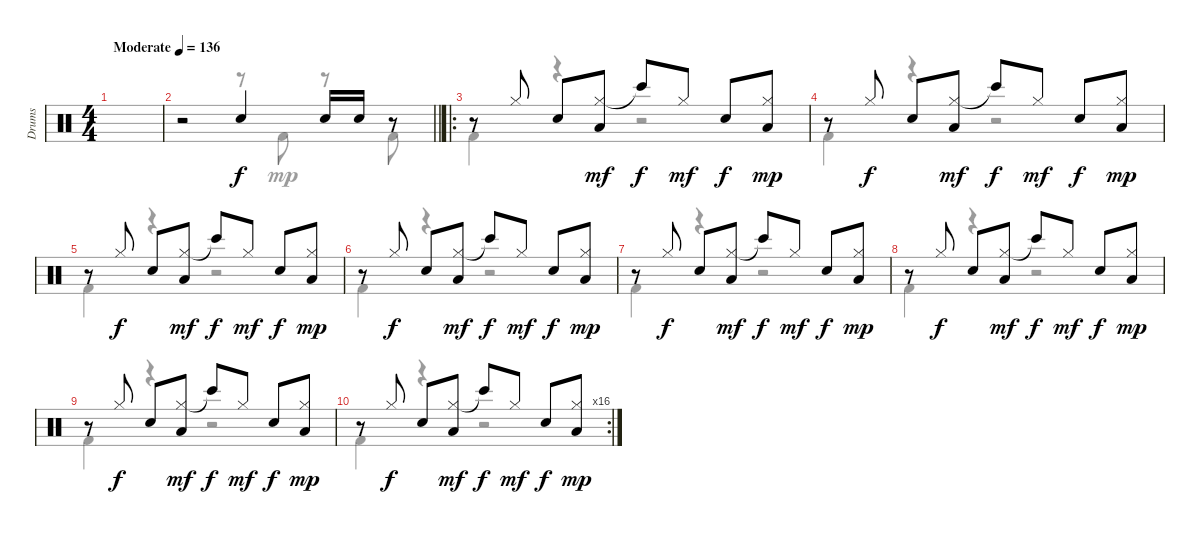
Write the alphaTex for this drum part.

\track ("Drums" "Drums") {instrument percussion}
\staff {score}
\articulation defaults
\voice
\ts (4 4)
\tempo (136 "Moderate")
\clef neutral
\ks c
|
\barLineRight lightlight
r.2 "Snare (hit) 2".4 "Snare (hit) 2".16 "Snare (hit) 2".16 r.8 |
\ro
r.8 "Hi-Hat (closed)".8 "Snare (hit) 2".8 ("Hi-Hat (closed)" "Low Floor Tom (hit)").8{dy mf} "Bongo High (hit)"{t}.8{dy f} "Hi-Hat (closed)".8{dy mf} "Snare (hit) 2".8{dy f} ("Hi-Hat (closed)" "Low Floor Tom (hit)").8{dy mp} |
r.8 "Hi-Hat (closed)".8{dy f} "Snare (hit) 2".8 ("Hi-Hat (closed)" "Low Floor Tom (hit)").8{dy mf} "Bongo High (hit)"{t}.8{dy f} "Hi-Hat (closed)".8{dy mf} "Snare (hit) 2".8{dy f} ("Hi-Hat (closed)" "Low Floor Tom (hit)").8{dy mp} |
r.8 "Hi-Hat (closed)".8{dy f} "Snare (hit) 2".8 ("Hi-Hat (closed)" "Low Floor Tom (hit)").8{dy mf} "Bongo High (hit)"{t}.8{dy f} "Hi-Hat (closed)".8{dy mf} "Snare (hit) 2".8{dy f} ("Hi-Hat (closed)" "Low Floor Tom (hit)").8{dy mp} |
r.8 "Hi-Hat (closed)".8{dy f} "Snare (hit) 2".8 ("Hi-Hat (closed)" "Low Floor Tom (hit)").8{dy mf} "Bongo High (hit)"{t}.8{dy f} "Hi-Hat (closed)".8{dy mf} "Snare (hit) 2".8{dy f} ("Hi-Hat (closed)" "Low Floor Tom (hit)").8{dy mp} |
r.8 "Hi-Hat (closed)".8{dy f} "Snare (hit) 2".8 ("Hi-Hat (closed)" "Low Floor Tom (hit)").8{dy mf} "Bongo High (hit)"{t}.8{dy f} "Hi-Hat (closed)".8{dy mf} "Snare (hit) 2".8{dy f} ("Hi-Hat (closed)" "Low Floor Tom (hit)").8{dy mp} |
r.8 "Hi-Hat (closed)".8{dy f} "Snare (hit) 2".8 ("Hi-Hat (closed)" "Low Floor Tom (hit)").8{dy mf} "Bongo High (hit)"{t}.8{dy f} "Hi-Hat (closed)".8{dy mf} "Snare (hit) 2".8{dy f} ("Hi-Hat (closed)" "Low Floor Tom (hit)").8{dy mp} |
r.8 "Hi-Hat (closed)".8{dy f} "Snare (hit) 2".8 ("Hi-Hat (closed)" "Low Floor Tom (hit)").8{dy mf} "Bongo High (hit)"{t}.8{dy f} "Hi-Hat (closed)".8{dy mf} "Snare (hit) 2".8{dy f} ("Hi-Hat (closed)" "Low Floor Tom (hit)").8{dy mp} |
\rc 16
r.8 "Hi-Hat (closed)".8{dy f} "Snare (hit) 2".8 ("Hi-Hat (closed)" "Low Floor Tom (hit)").8{dy mf} "Bongo High (hit)"{t}.8{dy f} "Hi-Hat (closed)".8{dy mf} "Snare (hit) 2".8{dy f} ("Hi-Hat (closed)" "Low Floor Tom (hit)").8{dy mp} |
\voice
\clef neutral
\ottava regular
\simile none
\ks c
|
\barLineRight lightlight
r.2 r.8 "Kick (hit) 2".8 r.8 "Kick (hit) 2".8 |
"Kick (hit) 2".4 r.4 r.2 |
"Kick (hit) 2".4 r.4 r.2 |
"Kick (hit) 2".4 r.4 r.2 |
"Kick (hit) 2".4 r.4 r.2 |
"Kick (hit) 2".4 r.4 r.2 |
"Kick (hit) 2".4 r.4 r.2 |
"Kick (hit) 2".4 r.4 r.2 |
"Kick (hit) 2".4 r.4 r.2 |
